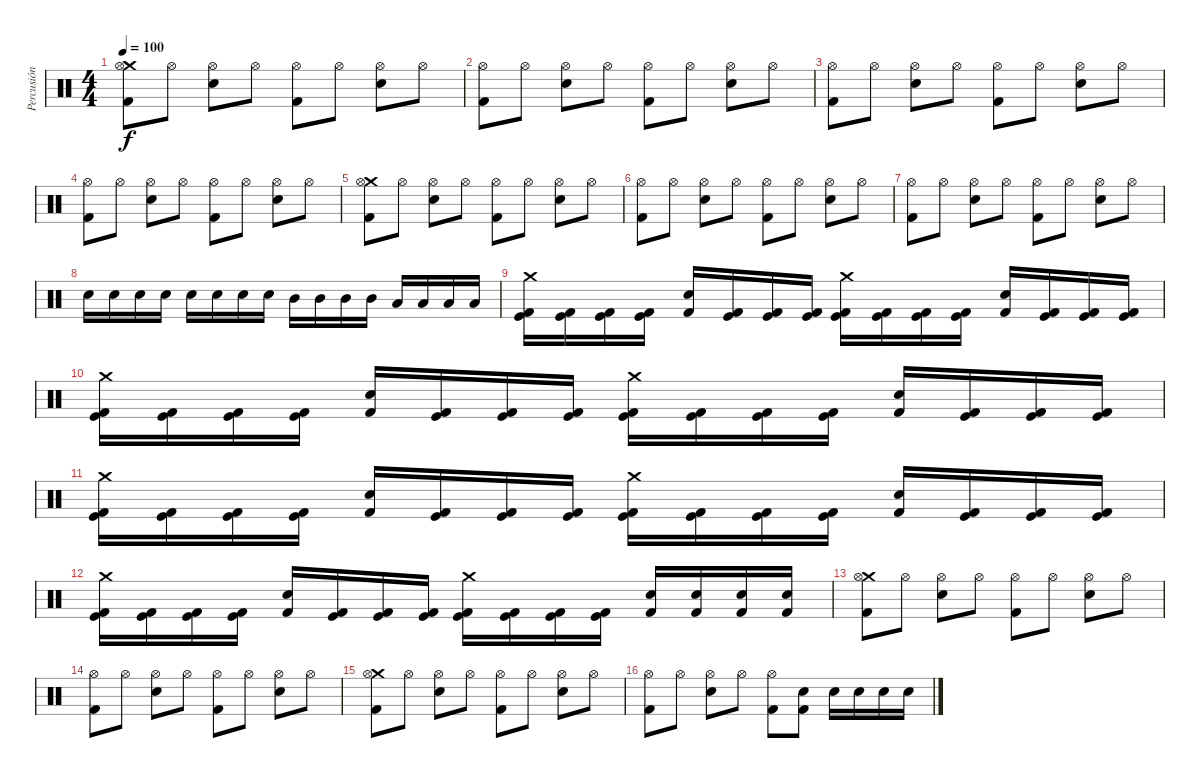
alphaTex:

\track ("Percusión" "Percusión") {instrument percussion}
\staff {score}
\articulation defaults
\ts (4 4)
\tempo 100
\clef neutral
\ks c
("Crash medium (hit)" "Hi-Hat (open)" "Kick (hit) 2").8{dy f} "Hi-Hat (open)".8 ("Hi-Hat (open)" "Snare (hit) 2").8 "Hi-Hat (open)".8 ("Hi-Hat (open)" "Kick (hit) 2").8 "Hi-Hat (open)".8 ("Hi-Hat (open)" "Snare (hit) 2").8 "Hi-Hat (open)".8 |
("Hi-Hat (open)" "Kick (hit) 2").8 "Hi-Hat (open)".8 ("Hi-Hat (open)" "Snare (hit) 2").8 "Hi-Hat (open)".8 ("Hi-Hat (open)" "Kick (hit) 2").8 "Hi-Hat (open)".8 ("Hi-Hat (open)" "Snare (hit) 2").8 "Hi-Hat (open)".8 |
("Hi-Hat (open)" "Kick (hit) 2").8 "Hi-Hat (open)".8 ("Hi-Hat (open)" "Snare (hit) 2").8 "Hi-Hat (open)".8 ("Hi-Hat (open)" "Kick (hit) 2").8 "Hi-Hat (open)".8 ("Hi-Hat (open)" "Snare (hit) 2").8 "Hi-Hat (open)".8 |
("Hi-Hat (open)" "Kick (hit) 2").8 "Hi-Hat (open)".8 ("Hi-Hat (open)" "Snare (hit) 2").8 "Hi-Hat (open)".8 ("Hi-Hat (open)" "Kick (hit) 2").8 "Hi-Hat (open)".8 ("Hi-Hat (open)" "Snare (hit) 2").8 "Hi-Hat (open)".8 |
("Crash medium (hit)" "Hi-Hat (open)" "Kick (hit) 2").8 "Hi-Hat (open)".8 ("Hi-Hat (open)" "Snare (hit) 2").8 "Hi-Hat (open)".8 ("Hi-Hat (open)" "Kick (hit) 2").8 "Hi-Hat (open)".8 ("Hi-Hat (open)" "Snare (hit) 2").8 "Hi-Hat (open)".8 |
("Hi-Hat (open)" "Kick (hit) 2").8 "Hi-Hat (open)".8 ("Hi-Hat (open)" "Snare (hit) 2").8 "Hi-Hat (open)".8 ("Hi-Hat (open)" "Kick (hit) 2").8 "Hi-Hat (open)".8 ("Hi-Hat (open)" "Snare (hit) 2").8 "Hi-Hat (open)".8 |
("Hi-Hat (open)" "Kick (hit) 2").8 "Hi-Hat (open)".8 ("Hi-Hat (open)" "Snare (hit) 2").8 "Hi-Hat (open)".8 ("Hi-Hat (open)" "Kick (hit) 2").8 "Hi-Hat (open)".8 ("Hi-Hat (open)" "Snare (hit) 2").8 "Hi-Hat (open)".8 |
"Snare (hit) 2".16 "Snare (hit) 2".16 "Snare (hit) 2".16 "Snare (hit) 2".16 "Snare (hit) 2".16 "Snare (hit) 2".16 "Snare (hit) 2".16 "Snare (hit) 2".16 "Mid Tom (hit)".16 "Mid Tom (hit)".16 "Mid Tom (hit)".16 "Mid Tom (hit)".16 "Low Tom (hit)".16 "Low Tom (hit)".16 "Low Tom (hit)".16 "Low Tom (hit)".16 |
("Crash medium (hit)" "Kick (hit)" "Kick (hit) 2").16 ("Kick (hit)" "Kick (hit) 2").16 ("Kick (hit)" "Kick (hit) 2").16 ("Kick (hit)" "Kick (hit) 2").16 ("Snare (hit) 2" "Kick (hit) 2").16 ("Kick (hit)" "Kick (hit) 2").16 ("Kick (hit)" "Kick (hit) 2").16 ("Kick (hit)" "Kick (hit) 2").16 ("Crash medium (hit)" "Kick (hit)" "Kick (hit) 2").16 ("Kick (hit)" "Kick (hit) 2").16 ("Kick (hit)" "Kick (hit) 2").16 ("Kick (hit)" "Kick (hit) 2").16 ("Snare (hit) 2" "Kick (hit) 2").16 ("Kick (hit)" "Kick (hit) 2").16 ("Kick (hit)" "Kick (hit) 2").16 ("Kick (hit)" "Kick (hit) 2").16 |
("Crash medium (hit)" "Kick (hit)" "Kick (hit) 2").16 ("Kick (hit)" "Kick (hit) 2").16 ("Kick (hit)" "Kick (hit) 2").16 ("Kick (hit)" "Kick (hit) 2").16 ("Snare (hit) 2" "Kick (hit) 2").16 ("Kick (hit)" "Kick (hit) 2").16 ("Kick (hit)" "Kick (hit) 2").16 ("Kick (hit)" "Kick (hit) 2").16 ("Crash medium (hit)" "Kick (hit)" "Kick (hit) 2").16 ("Kick (hit)" "Kick (hit) 2").16 ("Kick (hit)" "Kick (hit) 2").16 ("Kick (hit)" "Kick (hit) 2").16 ("Snare (hit) 2" "Kick (hit) 2").16 ("Kick (hit)" "Kick (hit) 2").16 ("Kick (hit)" "Kick (hit) 2").16 ("Kick (hit)" "Kick (hit) 2").16 |
("Crash medium (hit)" "Kick (hit)" "Kick (hit) 2").16 ("Kick (hit)" "Kick (hit) 2").16 ("Kick (hit)" "Kick (hit) 2").16 ("Kick (hit)" "Kick (hit) 2").16 ("Snare (hit) 2" "Kick (hit) 2").16 ("Kick (hit)" "Kick (hit) 2").16 ("Kick (hit)" "Kick (hit) 2").16 ("Kick (hit)" "Kick (hit) 2").16 ("Crash medium (hit)" "Kick (hit)" "Kick (hit) 2").16 ("Kick (hit)" "Kick (hit) 2").16 ("Kick (hit)" "Kick (hit) 2").16 ("Kick (hit)" "Kick (hit) 2").16 ("Snare (hit) 2" "Kick (hit) 2").16 ("Kick (hit)" "Kick (hit) 2").16 ("Kick (hit)" "Kick (hit) 2").16 ("Kick (hit)" "Kick (hit) 2").16 |
("Crash medium (hit)" "Kick (hit)" "Kick (hit) 2").16 ("Kick (hit)" "Kick (hit) 2").16 ("Kick (hit)" "Kick (hit) 2").16 ("Kick (hit)" "Kick (hit) 2").16 ("Snare (hit) 2" "Kick (hit) 2").16 ("Kick (hit)" "Kick (hit) 2").16 ("Kick (hit)" "Kick (hit) 2").16 ("Kick (hit)" "Kick (hit) 2").16 ("Crash medium (hit)" "Kick (hit)" "Kick (hit) 2").16 ("Kick (hit)" "Kick (hit) 2").16 ("Kick (hit)" "Kick (hit) 2").16 ("Kick (hit)" "Kick (hit) 2").16 ("Snare (hit) 2" "Kick (hit) 2").16 ("Snare (hit) 2" "Kick (hit) 2").16 ("Snare (hit) 2" "Kick (hit) 2").16 ("Snare (hit) 2" "Kick (hit) 2").16 |
("Crash medium (hit)" "Hi-Hat (open)" "Kick (hit) 2").8 "Hi-Hat (open)".8 ("Hi-Hat (open)" "Snare (hit) 2").8 "Hi-Hat (open)".8 ("Hi-Hat (open)" "Kick (hit) 2").8 "Hi-Hat (open)".8 ("Hi-Hat (open)" "Snare (hit) 2").8 "Hi-Hat (open)".8 |
("Hi-Hat (open)" "Kick (hit) 2").8 "Hi-Hat (open)".8 ("Hi-Hat (open)" "Snare (hit) 2").8 "Hi-Hat (open)".8 ("Hi-Hat (open)" "Kick (hit) 2").8 "Hi-Hat (open)".8 ("Hi-Hat (open)" "Snare (hit) 2").8 "Hi-Hat (open)".8 |
("Crash medium (hit)" "Hi-Hat (open)" "Kick (hit) 2").8 "Hi-Hat (open)".8 ("Hi-Hat (open)" "Snare (hit) 2").8 "Hi-Hat (open)".8 ("Hi-Hat (open)" "Kick (hit) 2").8 "Hi-Hat (open)".8 ("Hi-Hat (open)" "Snare (hit) 2").8 "Hi-Hat (open)".8 |
("Hi-Hat (open)" "Kick (hit) 2").8 "Hi-Hat (open)".8 ("Hi-Hat (open)" "Snare (hit) 2").8 "Hi-Hat (open)".8 ("Hi-Hat (open)" "Kick (hit) 2").8 ("Snare (hit) 2" "Kick (hit) 2").8 "Snare (hit) 2".16 "Snare (hit) 2".16 "Snare (hit) 2".16 "Snare (hit) 2".16
